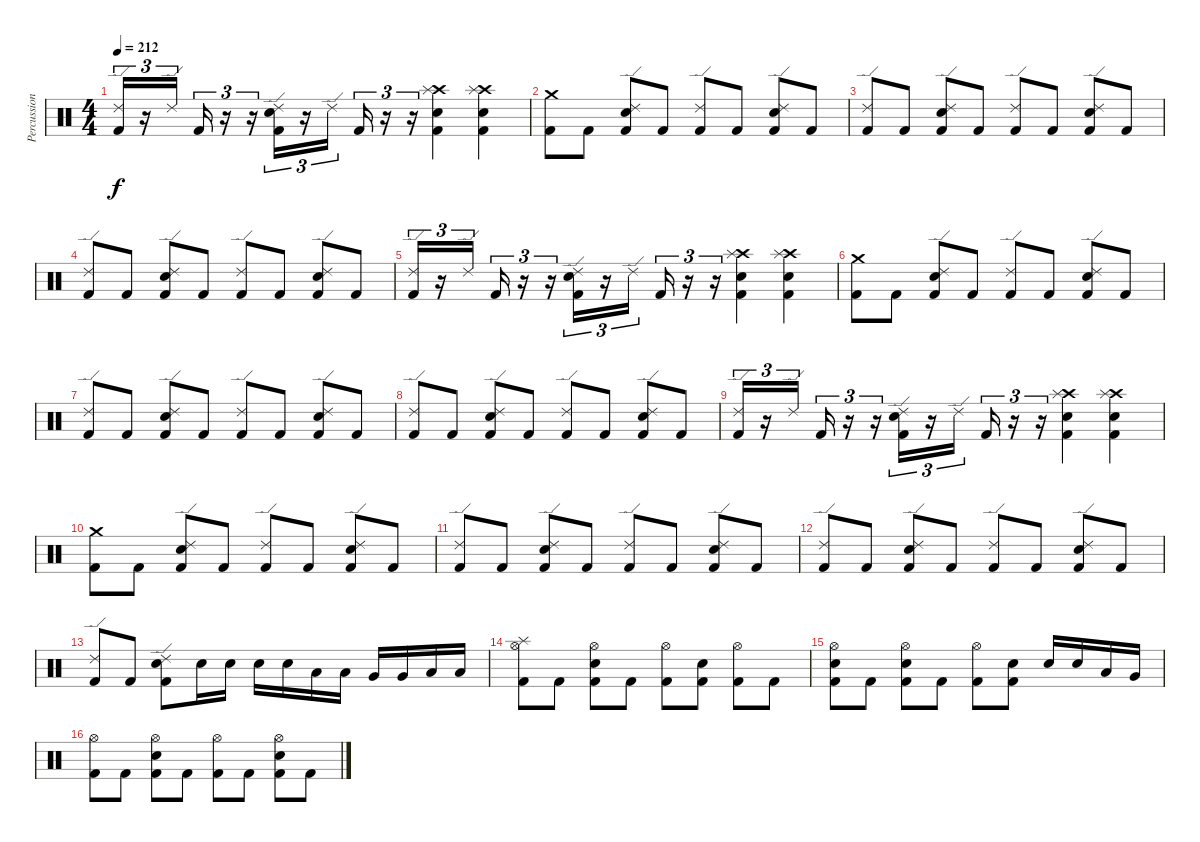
\track ("Percussions" "Percussion") {instrument percussion}
\staff {score}
\articulation defaults
\ts (4 4)
\tempo 212
\clef neutral
\ks c
("Ride (edge) 2" "Kick (hit) 2").16{tu (3 2) dy f} r.16{tu (3 2)} "Ride (edge) 2".16{tu (3 2)} "Kick (hit) 2".16{tu (3 2)} r.16{tu (3 2)} r.16{tu (3 2)} ("Ride (edge) 2" "Snare (hit) 2" "Kick (hit) 2").16{tu (3 2)} r.16{tu (3 2)} "Ride (edge) 2".16{tu (3 2)} "Kick (hit) 2".16{tu (3 2)} r.16{tu (3 2)} r.16{tu (3 2)} ("Crash high (hit)" "Splash (hit)" "Snare (hit) 2" "Kick (hit) 2").4 ("Crash high (hit)" "Splash (hit)" "Snare (hit) 2" "Kick (hit) 2").4 |
("Crash medium (hit)" "Kick (hit) 2").8 "Kick (hit) 2".8 ("Ride (edge) 2" "Snare (hit) 2" "Kick (hit) 2").8 "Kick (hit) 2".8 ("Ride (edge) 2" "Kick (hit) 2").8 "Kick (hit) 2".8 ("Ride (edge) 2" "Snare (hit) 2" "Kick (hit) 2").8 "Kick (hit) 2".8 |
("Ride (edge) 2" "Kick (hit) 2").8 "Kick (hit) 2".8 ("Ride (edge) 2" "Snare (hit) 2" "Kick (hit) 2").8 "Kick (hit) 2".8 ("Ride (edge) 2" "Kick (hit) 2").8 "Kick (hit) 2".8 ("Ride (edge) 2" "Snare (hit) 2" "Kick (hit) 2").8 "Kick (hit) 2".8 |
("Ride (edge) 2" "Kick (hit) 2").8 "Kick (hit) 2".8 ("Ride (edge) 2" "Snare (hit) 2" "Kick (hit) 2").8 "Kick (hit) 2".8 ("Ride (edge) 2" "Kick (hit) 2").8 "Kick (hit) 2".8 ("Ride (edge) 2" "Snare (hit) 2" "Kick (hit) 2").8 "Kick (hit) 2".8 |
("Ride (edge) 2" "Kick (hit) 2").16{tu (3 2)} r.16{tu (3 2)} "Ride (edge) 2".16{tu (3 2)} "Kick (hit) 2".16{tu (3 2)} r.16{tu (3 2)} r.16{tu (3 2)} ("Ride (edge) 2" "Snare (hit) 2" "Kick (hit) 2").16{tu (3 2)} r.16{tu (3 2)} "Ride (edge) 2".16{tu (3 2)} "Kick (hit) 2".16{tu (3 2)} r.16{tu (3 2)} r.16{tu (3 2)} ("Crash high (hit)" "Splash (hit)" "Snare (hit) 2" "Kick (hit) 2").4 ("Crash high (hit)" "Splash (hit)" "Snare (hit) 2" "Kick (hit) 2").4 |
("Crash medium (hit)" "Kick (hit) 2").8 "Kick (hit) 2".8 ("Ride (edge) 2" "Snare (hit) 2" "Kick (hit) 2").8 "Kick (hit) 2".8 ("Ride (edge) 2" "Kick (hit) 2").8 "Kick (hit) 2".8 ("Ride (edge) 2" "Snare (hit) 2" "Kick (hit) 2").8 "Kick (hit) 2".8 |
("Ride (edge) 2" "Kick (hit) 2").8 "Kick (hit) 2".8 ("Ride (edge) 2" "Snare (hit) 2" "Kick (hit) 2").8 "Kick (hit) 2".8 ("Ride (edge) 2" "Kick (hit) 2").8 "Kick (hit) 2".8 ("Ride (edge) 2" "Snare (hit) 2" "Kick (hit) 2").8 "Kick (hit) 2".8 |
("Ride (edge) 2" "Kick (hit) 2").8 "Kick (hit) 2".8 ("Ride (edge) 2" "Snare (hit) 2" "Kick (hit) 2").8 "Kick (hit) 2".8 ("Ride (edge) 2" "Kick (hit) 2").8 "Kick (hit) 2".8 ("Ride (edge) 2" "Snare (hit) 2" "Kick (hit) 2").8 "Kick (hit) 2".8 |
("Ride (edge) 2" "Kick (hit) 2").16{tu (3 2)} r.16{tu (3 2)} "Ride (edge) 2".16{tu (3 2)} "Kick (hit) 2".16{tu (3 2)} r.16{tu (3 2)} r.16{tu (3 2)} ("Ride (edge) 2" "Snare (hit) 2" "Kick (hit) 2").16{tu (3 2)} r.16{tu (3 2)} "Ride (edge) 2".16{tu (3 2)} "Kick (hit) 2".16{tu (3 2)} r.16{tu (3 2)} r.16{tu (3 2)} ("Crash high (hit)" "Splash (hit)" "Snare (hit) 2" "Kick (hit) 2").4 ("Crash high (hit)" "Splash (hit)" "Snare (hit) 2" "Kick (hit) 2").4 |
("Crash medium (hit)" "Kick (hit) 2").8 "Kick (hit) 2".8 ("Ride (edge) 2" "Snare (hit) 2" "Kick (hit) 2").8 "Kick (hit) 2".8 ("Ride (edge) 2" "Kick (hit) 2").8 "Kick (hit) 2".8 ("Ride (edge) 2" "Snare (hit) 2" "Kick (hit) 2").8 "Kick (hit) 2".8 |
("Ride (edge) 2" "Kick (hit) 2").8 "Kick (hit) 2".8 ("Ride (edge) 2" "Snare (hit) 2" "Kick (hit) 2").8 "Kick (hit) 2".8 ("Ride (edge) 2" "Kick (hit) 2").8 "Kick (hit) 2".8 ("Ride (edge) 2" "Snare (hit) 2" "Kick (hit) 2").8 "Kick (hit) 2".8 |
("Ride (edge) 2" "Kick (hit) 2").8 "Kick (hit) 2".8 ("Ride (edge) 2" "Snare (hit) 2" "Kick (hit) 2").8 "Kick (hit) 2".8 ("Ride (edge) 2" "Kick (hit) 2").8 "Kick (hit) 2".8 ("Ride (edge) 2" "Snare (hit) 2" "Kick (hit) 2").8 "Kick (hit) 2".8 |
("Ride (edge) 2" "Kick (hit) 2").8 "Kick (hit) 2".8 ("Ride (edge) 2" "Snare (hit) 2" "Kick (hit) 2").8 "Snare (hit) 2".16 "Snare (hit) 2".16 "Snare (hit) 2".16 "Snare (hit) 2".16 "Low Tom (hit)".16 "Low Tom (hit)".16 "Very Low Tom (hit)".16 "Very Low Tom (hit)".16 "Low Floor Tom (hit)".16 "Low Floor Tom (hit)".16 |
("Hi-Hat (open)" "Splash (hit)" "Kick (hit) 2").8 "Kick (hit) 2".8 ("Hi-Hat (open)" "Snare (hit) 2" "Kick (hit) 2").8 "Kick (hit) 2".8 ("Hi-Hat (open)" "Kick (hit) 2").8 ("Snare (hit) 2" "Kick (hit) 2").8 ("Hi-Hat (open)" "Kick (hit) 2").8 "Kick (hit) 2".8 |
("Hi-Hat (open)" "Snare (hit) 2" "Kick (hit) 2").8 "Kick (hit) 2".8 ("Hi-Hat (open)" "Snare (hit) 2" "Kick (hit) 2").8 "Kick (hit) 2".8 ("Hi-Hat (open)" "Kick (hit) 2").8 ("Snare (hit) 2" "Kick (hit) 2").8 "Snare (hit) 2".16 "Snare (hit) 2".16 "Low Tom (hit)".16 "Very Low Tom (hit)".16 |
("Hi-Hat (open)" "Kick (hit) 2").8 "Kick (hit) 2".8 ("Hi-Hat (open)" "Snare (hit) 2" "Kick (hit) 2").8 "Kick (hit) 2".8 ("Hi-Hat (open)" "Kick (hit) 2").8 "Kick (hit) 2".8 ("Hi-Hat (open)" "Snare (hit) 2" "Kick (hit) 2").8 "Kick (hit) 2".8
